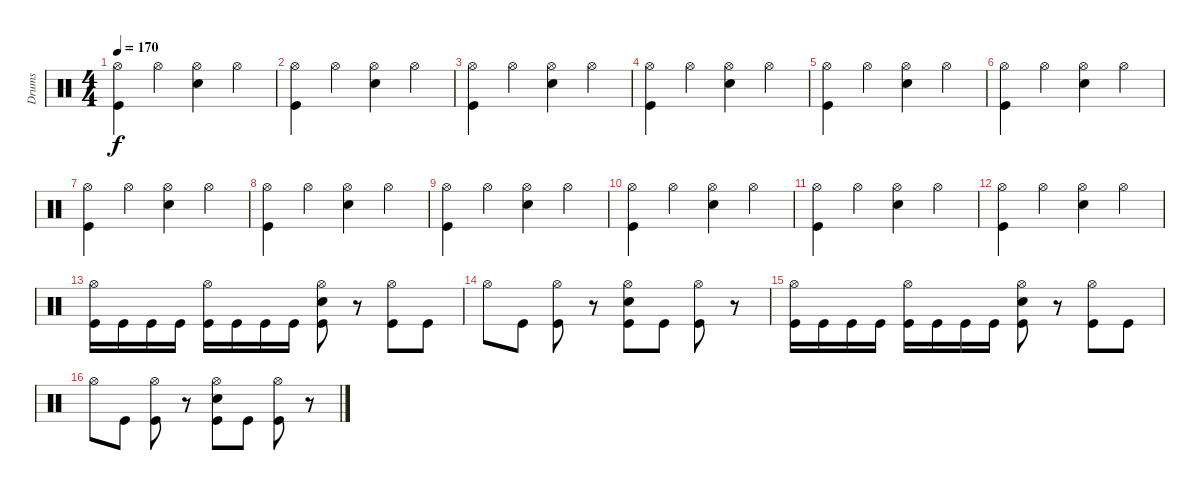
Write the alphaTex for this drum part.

\track ("Drums" "Drums") {instrument percussion}
\staff {score}
\articulation defaults
\ts (4 4)
\tempo 170
\clef neutral
\ks c
("Hi-Hat (open)" "Kick (hit)").4{dy f} "Hi-Hat (open)".4 ("Hi-Hat (open)" "Snare (hit) 2").4 "Hi-Hat (open)".4 |
("Hi-Hat (open)" "Kick (hit)").4 "Hi-Hat (open)".4 ("Hi-Hat (open)" "Snare (hit) 2").4 "Hi-Hat (open)".4 |
("Hi-Hat (open)" "Kick (hit)").4 "Hi-Hat (open)".4 ("Hi-Hat (open)" "Snare (hit) 2").4 "Hi-Hat (open)".4 |
("Hi-Hat (open)" "Kick (hit)").4 "Hi-Hat (open)".4 ("Hi-Hat (open)" "Snare (hit) 2").4 "Hi-Hat (open)".4 |
("Hi-Hat (open)" "Kick (hit)").4 "Hi-Hat (open)".4 ("Hi-Hat (open)" "Snare (hit) 2").4 "Hi-Hat (open)".4 |
("Hi-Hat (open)" "Kick (hit)").4 "Hi-Hat (open)".4 ("Hi-Hat (open)" "Snare (hit) 2").4 "Hi-Hat (open)".4 |
("Hi-Hat (open)" "Kick (hit)").4 "Hi-Hat (open)".4 ("Hi-Hat (open)" "Snare (hit) 2").4 "Hi-Hat (open)".4 |
("Hi-Hat (open)" "Kick (hit)").4 "Hi-Hat (open)".4 ("Hi-Hat (open)" "Snare (hit) 2").4 "Hi-Hat (open)".4 |
("Hi-Hat (open)" "Kick (hit)").4 "Hi-Hat (open)".4 ("Hi-Hat (open)" "Snare (hit) 2").4 "Hi-Hat (open)".4 |
("Hi-Hat (open)" "Kick (hit)").4 "Hi-Hat (open)".4 ("Hi-Hat (open)" "Snare (hit) 2").4 "Hi-Hat (open)".4 |
("Hi-Hat (open)" "Kick (hit)").4 "Hi-Hat (open)".4 ("Hi-Hat (open)" "Snare (hit) 2").4 "Hi-Hat (open)".4 |
("Hi-Hat (open)" "Kick (hit)").4 "Hi-Hat (open)".4 ("Hi-Hat (open)" "Snare (hit) 2").4 "Hi-Hat (open)".4 |
("Kick (hit)" "Hi-Hat (open)").16 "Kick (hit)".16 "Kick (hit)".16 "Kick (hit)".16 ("Kick (hit)" "Hi-Hat (open)").16 "Kick (hit)".16 "Kick (hit)".16 "Kick (hit)".16 ("Kick (hit)" "Hi-Hat (open)" "Snare (hit) 2").8 r.8 ("Kick (hit)" "Hi-Hat (open)").8 "Kick (hit)".8 |
"Hi-Hat (open)".8 "Kick (hit)".8 ("Kick (hit)" "Hi-Hat (open)").8 r.8 ("Kick (hit)" "Hi-Hat (open)" "Snare (hit) 2").8 "Kick (hit)".8 ("Kick (hit)" "Hi-Hat (open)").8 r.8 |
("Kick (hit)" "Hi-Hat (open)").16 "Kick (hit)".16 "Kick (hit)".16 "Kick (hit)".16 ("Kick (hit)" "Hi-Hat (open)").16 "Kick (hit)".16 "Kick (hit)".16 "Kick (hit)".16 ("Kick (hit)" "Hi-Hat (open)" "Snare (hit) 2").8 r.8 ("Kick (hit)" "Hi-Hat (open)").8 "Kick (hit)".8 |
"Hi-Hat (open)".8 "Kick (hit)".8 ("Kick (hit)" "Hi-Hat (open)").8 r.8 ("Kick (hit)" "Hi-Hat (open)" "Snare (hit) 2").8 "Kick (hit)".8 ("Kick (hit)" "Hi-Hat (open)").8 r.8
